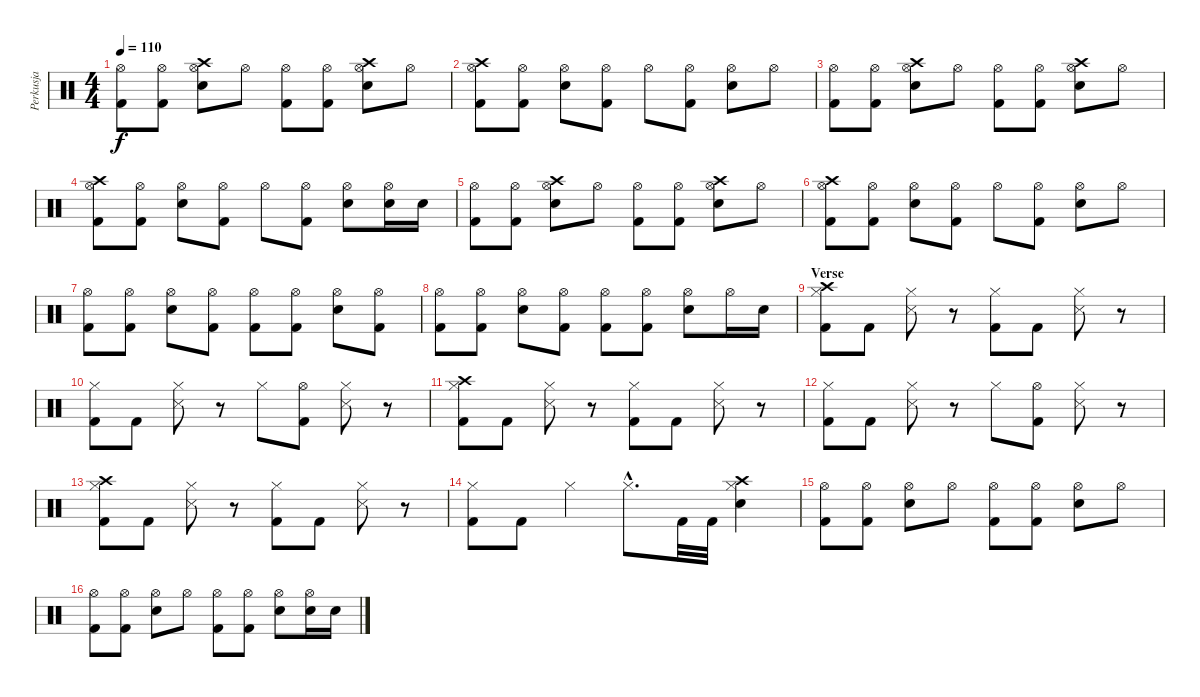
\track ("Perkusja" "Perkusja") {instrument percussion}
\staff {score}
\articulation defaults
\ts (4 4)
\tempo 110
\clef neutral
\ks c
("Hi-Hat (open)" "Kick (hit) 2").8{dy f} ("Hi-Hat (open)" "Kick (hit) 2").8 ("Hi-Hat (open)" "Snare (hit) 2" "Crash high (hit)").8 "Hi-Hat (open)".8 ("Hi-Hat (open)" "Kick (hit) 2").8 ("Hi-Hat (open)" "Kick (hit) 2").8 ("Hi-Hat (open)" "Snare (hit) 2" "Crash high (hit)").8 "Hi-Hat (open)".8 |
("Hi-Hat (open)" "Kick (hit) 2" "Crash high (hit)").8 ("Hi-Hat (open)" "Kick (hit) 2").8 ("Hi-Hat (open)" "Snare (hit) 2").8 ("Hi-Hat (open)" "Kick (hit) 2").8 "Hi-Hat (open)".8 ("Hi-Hat (open)" "Kick (hit) 2").8 ("Hi-Hat (open)" "Snare (hit) 2").8 "Hi-Hat (open)".8 |
("Hi-Hat (open)" "Kick (hit) 2").8 ("Hi-Hat (open)" "Kick (hit) 2").8 ("Hi-Hat (open)" "Snare (hit) 2" "Crash high (hit)").8 "Hi-Hat (open)".8 ("Hi-Hat (open)" "Kick (hit) 2").8 ("Hi-Hat (open)" "Kick (hit) 2").8 ("Hi-Hat (open)" "Snare (hit) 2" "Crash high (hit)").8 "Hi-Hat (open)".8 |
("Hi-Hat (open)" "Kick (hit) 2" "Crash high (hit)").8 ("Hi-Hat (open)" "Kick (hit) 2").8 ("Hi-Hat (open)" "Snare (hit) 2").8 ("Hi-Hat (open)" "Kick (hit) 2").8 "Hi-Hat (open)".8 ("Hi-Hat (open)" "Kick (hit) 2").8 ("Hi-Hat (open)" "Snare (hit) 2").8 ("Hi-Hat (open)" "Snare (hit) 2").16 "Snare (hit) 2".16 |
("Hi-Hat (open)" "Kick (hit) 2").8 ("Hi-Hat (open)" "Kick (hit) 2").8 ("Hi-Hat (open)" "Snare (hit) 2" "Crash high (hit)").8 "Hi-Hat (open)".8 ("Hi-Hat (open)" "Kick (hit) 2").8 ("Hi-Hat (open)" "Kick (hit) 2").8 ("Hi-Hat (open)" "Snare (hit) 2" "Crash high (hit)").8 "Hi-Hat (open)".8 |
("Hi-Hat (open)" "Kick (hit) 2" "Crash high (hit)").8 ("Hi-Hat (open)" "Kick (hit) 2").8 ("Hi-Hat (open)" "Snare (hit) 2").8 ("Hi-Hat (open)" "Kick (hit) 2").8 "Hi-Hat (open)".8 ("Hi-Hat (open)" "Kick (hit) 2").8 ("Hi-Hat (open)" "Snare (hit) 2").8 "Hi-Hat (open)".8 |
("Hi-Hat (open)" "Kick (hit) 2").8 ("Hi-Hat (open)" "Kick (hit) 2").8 ("Hi-Hat (open)" "Snare (hit) 2").8 ("Hi-Hat (open)" "Kick (hit) 2").8 ("Hi-Hat (open)" "Kick (hit) 2").8 ("Hi-Hat (open)" "Kick (hit) 2").8 ("Hi-Hat (open)" "Snare (hit) 2").8 ("Hi-Hat (open)" "Kick (hit) 2").8 |
("Hi-Hat (open)" "Kick (hit) 2").8 ("Hi-Hat (open)" "Kick (hit) 2").8 ("Hi-Hat (open)" "Snare (hit) 2").8 ("Hi-Hat (open)" "Kick (hit) 2").8 ("Hi-Hat (open)" "Kick (hit) 2").8 ("Hi-Hat (open)" "Kick (hit) 2").8 ("Hi-Hat (open)" "Snare (hit) 2").8 "Hi-Hat (open)".16 "Snare (hit) 2".16 |
\section ("" "Verse")
("Hi-Hat (closed)" "Kick (hit) 2" "Crash high (hit)").8 "Kick (hit) 2".8 ("Hi-Hat (closed)" "Snare (side stick) 3").8 r.8 ("Hi-Hat (closed)" "Kick (hit) 2").8 "Kick (hit) 2".8 ("Hi-Hat (closed)" "Snare (side stick) 3").8 r.8 |
("Hi-Hat (closed)" "Kick (hit) 2").8 "Kick (hit) 2".8 ("Hi-Hat (closed)" "Snare (side stick) 3").8 r.8 "Hi-Hat (closed)".8 ("Hi-Hat (open)" "Kick (hit) 2").8 ("Hi-Hat (closed)" "Snare (side stick) 3").8 r.8 |
("Hi-Hat (closed)" "Kick (hit) 2" "Crash high (hit)").8 "Kick (hit) 2".8 ("Hi-Hat (closed)" "Snare (side stick) 3").8 r.8 ("Hi-Hat (closed)" "Kick (hit) 2").8 "Kick (hit) 2".8 ("Hi-Hat (closed)" "Snare (side stick) 3").8 r.8 |
("Hi-Hat (closed)" "Kick (hit) 2").8 "Kick (hit) 2".8 ("Hi-Hat (closed)" "Snare (side stick) 3").8 r.8 "Hi-Hat (closed)".8 ("Hi-Hat (open)" "Kick (hit) 2").8 ("Hi-Hat (closed)" "Snare (side stick) 3").8 r.8 |
("Hi-Hat (closed)" "Kick (hit) 2" "Crash high (hit)").8 "Kick (hit) 2".8 ("Hi-Hat (closed)" "Snare (side stick) 3").8 r.8 ("Hi-Hat (closed)" "Kick (hit) 2").8 "Kick (hit) 2".8 ("Hi-Hat (closed)" "Snare (side stick) 3").8 r.8 |
("Hi-Hat (closed)" "Kick (hit) 2").8 "Kick (hit) 2".8 "Hi-Hat (closed)".4 "Hi-Hat (closed)"{hac}.8{d} "Kick (hit) 2".32 "Kick (hit) 2".32 ("Hi-Hat (closed)" "Snare (hit) 2" "Crash high (hit)").4 |
("Hi-Hat (open)" "Kick (hit) 2").8 ("Hi-Hat (open)" "Kick (hit) 2").8 ("Hi-Hat (open)" "Snare (hit) 2").8 "Hi-Hat (open)".8 ("Hi-Hat (open)" "Kick (hit) 2").8 ("Hi-Hat (open)" "Kick (hit) 2").8 ("Hi-Hat (open)" "Snare (hit) 2").8 "Hi-Hat (open)".8 |
("Hi-Hat (open)" "Kick (hit) 2").8 ("Hi-Hat (open)" "Kick (hit) 2").8 ("Hi-Hat (open)" "Snare (hit) 2").8 "Hi-Hat (open)".8 ("Hi-Hat (open)" "Kick (hit) 2").8 ("Hi-Hat (open)" "Kick (hit) 2").8 ("Hi-Hat (open)" "Snare (hit) 2").8 ("Hi-Hat (open)" "Snare (hit) 2").16 "Snare (hit) 2".16
